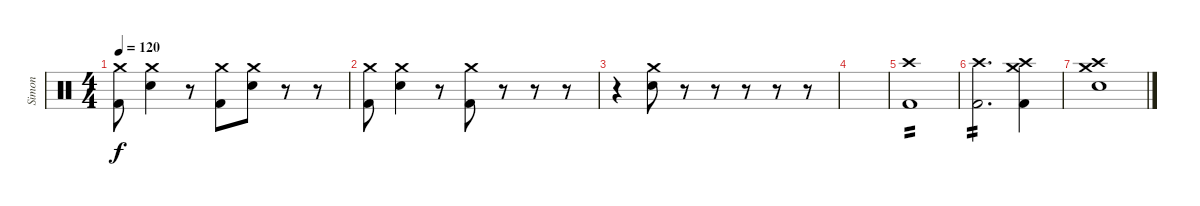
\track ("Simon" "Simon") {instrument percussion}
\staff {score}
\articulation defaults
\ts (4 4)
\tempo 120
\clef neutral
\ks c
("Kick (hit) 2" "Crash medium (hit)").8{dy f} ("Snare (hit) 2" "Crash medium (hit)").4 r.8 ("Kick (hit) 2" "Crash medium (hit)").8 ("Snare (hit) 2" "Crash medium (hit)").8 r.8 r.8 |
("Kick (hit) 2" "Crash medium (hit)").8 ("Snare (hit) 2" "Crash medium (hit)").4 r.8 ("Kick (hit) 2" "Crash medium (hit)").8 r.8 r.8 r.8 |
r.4 ("Snare (hit) 2" "Crash medium (hit)").8 r.8 r.8 r.8 r.8 r.8 |
|
("Kick (hit) 2" "Crash high (hit)").1{tp 2} |
("Kick (hit) 2" "Crash high (hit)").2{d tp 2} ("Kick (hit) 2" "Crash medium (hit)" "Crash high (hit)").4 |
("Snare (hit) 2" "Crash medium (hit)" "Crash high (hit)").1
